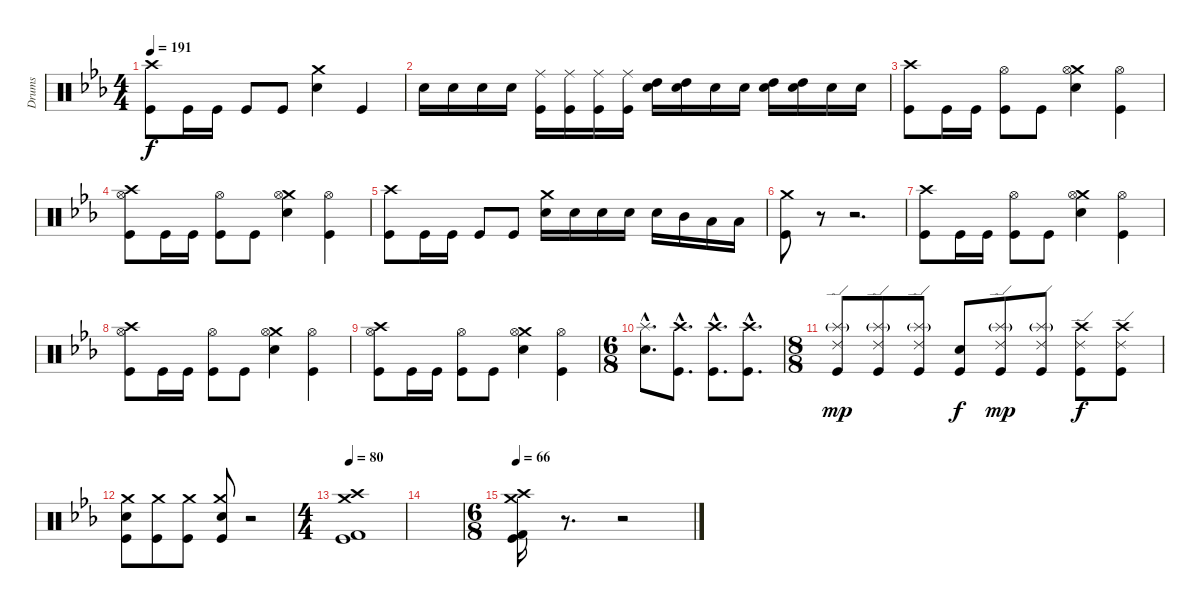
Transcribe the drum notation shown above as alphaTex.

\track ("Drums" "Drums") {instrument percussion}
\staff {score}
\articulation defaults
\ts (4 4)
\tempo 191
\clef neutral
\ks cminor
("Crash high (hit)" "Kick (hit)").8{dy f} "Kick (hit)".16 "Kick (hit)".16 "Kick (hit)".8 "Kick (hit)".8 ("Crash medium (hit)" "Electric Snare (hit)").4 "Kick (hit)".4 |
"Electric Snare (hit)".16 "Electric Snare (hit)".16 "Electric Snare (hit)".16 "Electric Snare (hit)".16 ("Ride (middle)" "Kick (hit)").16 ("Ride (middle)" "Kick (hit)").16 ("Ride (middle)" "Kick (hit)").16 ("Ride (middle)" "Kick (hit)").16 ("High Tom (hit)" "Electric Snare (hit)").16 ("High Tom (hit)" "Electric Snare (hit)").16 "Electric Snare (hit)".16 "Electric Snare (hit)".16 ("High Tom (hit)" "Electric Snare (hit)").16 ("High Tom (hit)" "Electric Snare (hit)").16 "Electric Snare (hit)".16 "Electric Snare (hit)".16 |
("Crash high (hit)" "Kick (hit)").8 "Kick (hit)".16 "Kick (hit)".16 ("Hi-Hat (open)" "Kick (hit)").8 "Kick (hit)".8 ("Crash medium (hit)" "Hi-Hat (open)" "Electric Snare (hit)").4 ("Hi-Hat (open)" "Kick (hit)").4 |
("Crash high (hit)" "Hi-Hat (open)" "Kick (hit)").8 "Kick (hit)".16 "Kick (hit)".16 ("Hi-Hat (open)" "Kick (hit)").8 "Kick (hit)".8 ("Crash medium (hit)" "Hi-Hat (open)" "Electric Snare (hit)").4 ("Hi-Hat (open)" "Kick (hit)").4 |
("Crash high (hit)" "Kick (hit)").8 "Kick (hit)".16 "Kick (hit)".16 "Kick (hit)".8 "Kick (hit)".8 ("Crash medium (hit)" "Electric Snare (hit)").16 "Electric Snare (hit)".16 "Electric Snare (hit)".16 "Electric Snare (hit)".16 "Electric Snare (hit)".16 "Mid Tom (hit)".16 "Low Tom (hit)".16 "Low Tom (hit)".16 |
("Crash medium (hit)" "Kick (hit)").8 r.8 r.2{d} |
("Crash high (hit)" "Kick (hit)").8 "Kick (hit)".16 "Kick (hit)".16 ("Hi-Hat (open)" "Kick (hit)").8 "Kick (hit)".8 ("Crash medium (hit)" "Hi-Hat (open)" "Electric Snare (hit)").4 ("Hi-Hat (open)" "Kick (hit)").4 |
("Crash high (hit)" "Hi-Hat (open)" "Kick (hit)").8 "Kick (hit)".16 "Kick (hit)".16 ("Hi-Hat (open)" "Kick (hit)").8 "Kick (hit)".8 ("Crash medium (hit)" "Hi-Hat (open)" "Electric Snare (hit)").4 ("Hi-Hat (open)" "Kick (hit)").4 |
("Crash high (hit)" "Hi-Hat (open)" "Kick (hit)").8 "Kick (hit)".16 "Kick (hit)".16 ("Hi-Hat (open)" "Kick (hit)").8 "Kick (hit)".8 ("Crash medium (hit)" "Hi-Hat (open)" "Electric Snare (hit)").4 ("Hi-Hat (open)" "Kick (hit)").4 |
\ts (6 8)
("Splash (hit)"{hac} "Electric Snare (hit)"{hac}).8{d} ("Crash high (hit)"{hac} "Kick (hit)"{hac}).8{d} ("Crash high (hit)"{hac} "Kick (hit)"{hac}).8{d} ("Crash high (hit)"{hac} "Kick (hit)"{hac}).8{d} |
\ts (8 8)
("Ride (edge) 2" "Splash (hit)"{g} "Kick (hit)").8{dy mp} ("Ride (edge) 2" "Splash (hit)"{g} "Kick (hit)").8 ("Ride (edge) 2" "Splash (hit)"{g} "Kick (hit)").8 ("Electric Snare (hit)" "Kick (hit)").8{dy f} ("Ride (edge) 2" "Splash (hit)"{g} "Kick (hit)").8{dy mp} ("Ride (edge) 2" "Splash (hit)"{g} "Kick (hit)").8 ("Crash high (hit)" "Ride (edge) 2" "Kick (hit)").8{dy f} ("Crash high (hit)" "Ride (edge) 2" "Kick (hit)").8 |
("Crash medium (hit)" "Electric Snare (hit)" "Kick (hit)").8 ("Crash medium (hit)" "Kick (hit)").8 ("Crash medium (hit)" "Kick (hit)").8 ("Crash medium (hit)" "Electric Snare (hit)" "Kick (hit)").8 r.2 |
\ts (4 4)
\tempo 80
("Crash medium (hit)" "Crash high (hit)" "Kick (hit) 2" "Kick (hit)").1 |
|
\ts (6 8)
\tempo 66
("Crash medium (hit)" "Crash high (hit)" "Kick (hit) 2" "Kick (hit)").16 r.8{d} r.2
